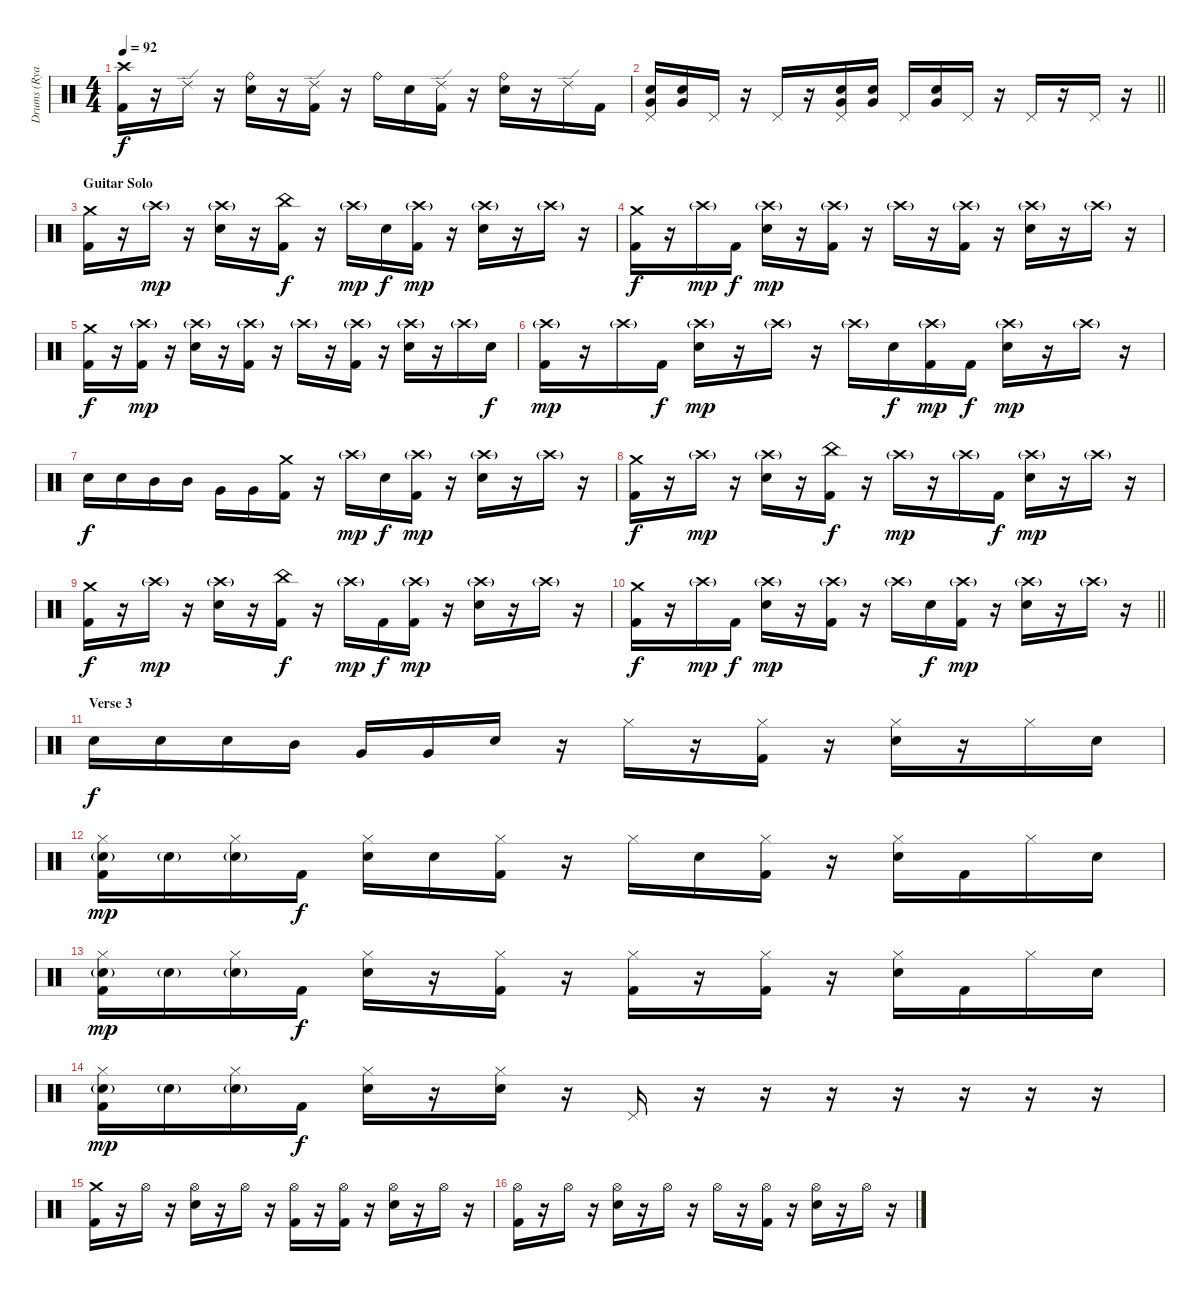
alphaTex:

\track ("Drums (Ryan Vikedal)" "Drums (Rya") {instrument percussion}
\staff {score}
\articulation defaults
\ts (4 4)
\tempo 92
\clef neutral
\ks c
("Crash high (hit)" "Kick (hit) 2").16{dy f} r.16 "Ride (edge) 2".16 r.16 ("Ride (bell)" "Snare (hit) 2").16 r.16 ("Ride (edge) 2" "Kick (hit) 2").16 r.16 "Ride (bell)".16 "Snare (hit) 2".16 ("Ride (edge) 2" "Kick (hit) 2").16 r.16 ("Ride (bell)" "Snare (hit) 2").16 r.16 "Ride (edge) 2".16 "Kick (hit) 2".16 |
\barLineRight lightlight
("Pedal Hi-Hat (hit)" "Snare (hit) 2" "Very Low Tom (hit)").16 ("Snare (hit) 2" "Very Low Tom (hit)").16 "Pedal Hi-Hat (hit)".16 r.16 "Pedal Hi-Hat (hit)".16 r.16 ("Pedal Hi-Hat (hit)" "Snare (hit) 2" "Very Low Tom (hit)").16 ("Snare (hit) 2" "Very Low Tom (hit)").16 "Pedal Hi-Hat (hit)".16 ("Snare (hit) 2" "Very Low Tom (hit)").16 "Pedal Hi-Hat (hit)".16 r.16 "Pedal Hi-Hat (hit)".16 r.16 "Pedal Hi-Hat (hit)".16 r.16 |
\section ("" "Guitar Solo")
("Crash medium (hit)" "Kick (hit) 2").16 r.16 "Crash high (hit)"{g}.16{dy mp} r.16 ("Crash high (hit)"{g} "Snare (hit) 2").16 r.16 ("China (hit)" "Kick (hit) 2").16{dy f} r.16 "Crash high (hit)"{g}.16{dy mp} "Snare (hit) 2".16{dy f} ("Crash high (hit)"{g} "Kick (hit) 2").16{dy mp} r.16 ("Crash high (hit)"{g} "Snare (hit) 2").16 r.16 "Crash high (hit)"{g}.16 r.16 |
("Crash medium (hit)" "Kick (hit) 2").16{dy f} r.16 "Crash high (hit)"{g}.16{dy mp} "Kick (hit) 2".16{dy f} ("Crash high (hit)"{g} "Snare (hit) 2").16{dy mp} r.16 ("Crash high (hit)"{g} "Kick (hit) 2").16 r.16 "Crash high (hit)"{g}.16 r.16 ("Crash high (hit)"{g} "Kick (hit) 2").16 r.16 ("Crash high (hit)"{g} "Snare (hit) 2").16 r.16 "Crash high (hit)"{g}.16 r.16 |
("Crash medium (hit)" "Kick (hit) 2").16{dy f} r.16 ("Crash high (hit)"{g} "Kick (hit) 2").16{dy mp} r.16 ("Crash high (hit)"{g} "Snare (hit) 2").16 r.16 ("Crash high (hit)"{g} "Kick (hit) 2").16 r.16 "Crash high (hit)"{g}.16 r.16 ("Crash high (hit)"{g} "Kick (hit) 2").16 r.16 ("Crash high (hit)"{g} "Snare (hit) 2").16 r.16 "Crash high (hit)"{g}.16 "Snare (hit) 2".16{dy f} |
("Crash high (hit)"{g} "Kick (hit) 2").16{dy mp} r.16 "Crash high (hit)"{g}.16 "Kick (hit) 2".16{dy f} ("Crash high (hit)"{g} "Snare (hit) 2").16{dy mp} r.16 "Crash high (hit)"{g}.16 r.16 "Crash high (hit)"{g}.16 "Snare (hit) 2".16{dy f} ("Crash high (hit)"{g} "Kick (hit) 2").16{dy mp} "Kick (hit) 2".16{dy f} ("Crash high (hit)"{g} "Snare (hit) 2").16{dy mp} r.16 "Crash high (hit)"{g}.16 r.16 |
"Snare (hit) 2".16{dy f} "Snare (hit) 2".16 "Mid Tom (hit)".16 "Mid Tom (hit)".16 "Very Low Tom (hit)".16 "Very Low Tom (hit)".16 ("Crash medium (hit)" "Kick (hit) 2").16 r.16 "Crash high (hit)"{g}.16{dy mp} "Snare (hit) 2".16{dy f} ("Crash high (hit)"{g} "Kick (hit) 2").16{dy mp} r.16 ("Crash high (hit)"{g} "Snare (hit) 2").16 r.16 "Crash high (hit)"{g}.16 r.16 |
("Crash medium (hit)" "Kick (hit) 2").16{dy f} r.16 "Crash high (hit)"{g}.16{dy mp} r.16 ("Crash high (hit)"{g} "Snare (hit) 2").16 r.16 ("China (hit)" "Kick (hit) 2").16{dy f} r.16 "Crash high (hit)"{g}.16{dy mp} r.16 "Crash high (hit)"{g}.16 "Kick (hit) 2".16{dy f} ("Crash high (hit)"{g} "Snare (hit) 2").16{dy mp} r.16 "Crash high (hit)"{g}.16 r.16 |
("Crash medium (hit)" "Kick (hit) 2").16{dy f} r.16 "Crash high (hit)"{g}.16{dy mp} r.16 ("Crash high (hit)"{g} "Snare (hit) 2").16 r.16 ("China (hit)" "Kick (hit) 2").16{dy f} r.16 "Crash high (hit)"{g}.16{dy mp} "Kick (hit) 2".16{dy f} ("Crash high (hit)"{g} "Kick (hit) 2").16{dy mp} r.16 ("Crash high (hit)"{g} "Snare (hit) 2").16 r.16 "Crash high (hit)"{g}.16 r.16 |
\barLineRight lightlight
("Crash medium (hit)" "Kick (hit) 2").16{dy f} r.16 "Crash high (hit)"{g}.16{dy mp} "Kick (hit) 2".16{dy f} ("Crash high (hit)"{g} "Snare (hit) 2").16{dy mp} r.16 ("Crash high (hit)"{g} "Kick (hit) 2").16 r.16 "Crash high (hit)"{g}.16 "Snare (hit) 2".16{dy f} ("Crash high (hit)"{g} "Kick (hit) 2").16{dy mp} r.16 ("Crash high (hit)"{g} "Snare (hit) 2").16 r.16 "Crash high (hit)"{g}.16 r.16 |
\section ("" "Verse 3")
"Snare (hit) 2".16{dy f} "Snare (hit) 2".16 "Snare (hit) 2".16 "Mid Tom (hit)".16 "Very Low Tom (hit)".16 "Very Low Tom (hit)".16 "Snare (hit) 2".16 r.16 "Hi-Hat (closed)".16 r.16 ("Hi-Hat (closed)" "Kick (hit) 2").16 r.16 ("Hi-Hat (closed)" "Snare (hit) 2").16 r.16 "Hi-Hat (closed)".16 "Snare (hit) 2".16 |
("Hi-Hat (closed)" "Snare (hit) 2"{g} "Kick (hit) 2").16{dy mp} "Snare (hit) 2"{g}.16 ("Hi-Hat (closed)" "Snare (hit) 2"{g}).16 "Kick (hit) 2".16{dy f} ("Hi-Hat (closed)" "Snare (hit) 2").16 "Snare (hit) 2".16 ("Hi-Hat (closed)" "Kick (hit) 2").16 r.16 "Hi-Hat (closed)".16 "Snare (hit) 2".16 ("Hi-Hat (closed)" "Kick (hit) 2").16 r.16 ("Hi-Hat (closed)" "Snare (hit) 2").16 "Kick (hit) 2".16 "Hi-Hat (closed)".16 "Snare (hit) 2".16 |
("Hi-Hat (closed)" "Snare (hit) 2"{g} "Kick (hit) 2").16{dy mp} "Snare (hit) 2"{g}.16 ("Hi-Hat (closed)" "Snare (hit) 2"{g}).16 "Kick (hit) 2".16{dy f} ("Hi-Hat (closed)" "Snare (hit) 2").16 r.16 ("Hi-Hat (closed)" "Kick (hit) 2").16 r.16 ("Hi-Hat (closed)" "Kick (hit) 2").16 r.16 ("Hi-Hat (closed)" "Kick (hit) 2").16 r.16 ("Hi-Hat (closed)" "Snare (hit) 2").16 "Kick (hit) 2".16 "Hi-Hat (closed)".16 "Snare (hit) 2".16 |
("Hi-Hat (closed)" "Snare (hit) 2"{g} "Kick (hit) 2").16{dy mp} "Snare (hit) 2"{g}.16 ("Hi-Hat (closed)" "Snare (hit) 2"{g}).16 "Kick (hit) 2".16{dy f} ("Hi-Hat (closed)" "Snare (hit) 2").16 r.16 ("Hi-Hat (closed)" "Snare (hit) 2").16 r.16 "Pedal Hi-Hat (hit)".16 r.16 r.16 r.16 r.16 r.16 r.16 r.16 |
("Crash medium (hit)" "Kick (hit) 2").16 r.16 "Hi-Hat (open)".16 r.16 ("Hi-Hat (open)" "Snare (hit) 2").16 r.16 "Hi-Hat (open)".16 r.16 ("Hi-Hat (open)" "Kick (hit) 2").16 r.16 ("Hi-Hat (open)" "Kick (hit) 2").16 r.16 ("Hi-Hat (open)" "Snare (hit) 2").16 r.16 "Hi-Hat (open)".16 r.16 |
("Hi-Hat (open)" "Kick (hit) 2").16 r.16 "Hi-Hat (open)".16 r.16 ("Hi-Hat (open)" "Snare (hit) 2").16 r.16 "Hi-Hat (open)".16 r.16 "Hi-Hat (open)".16 r.16 ("Hi-Hat (open)" "Kick (hit) 2").16 r.16 ("Hi-Hat (open)" "Snare (hit) 2").16 r.16 "Hi-Hat (open)".16 r.16
